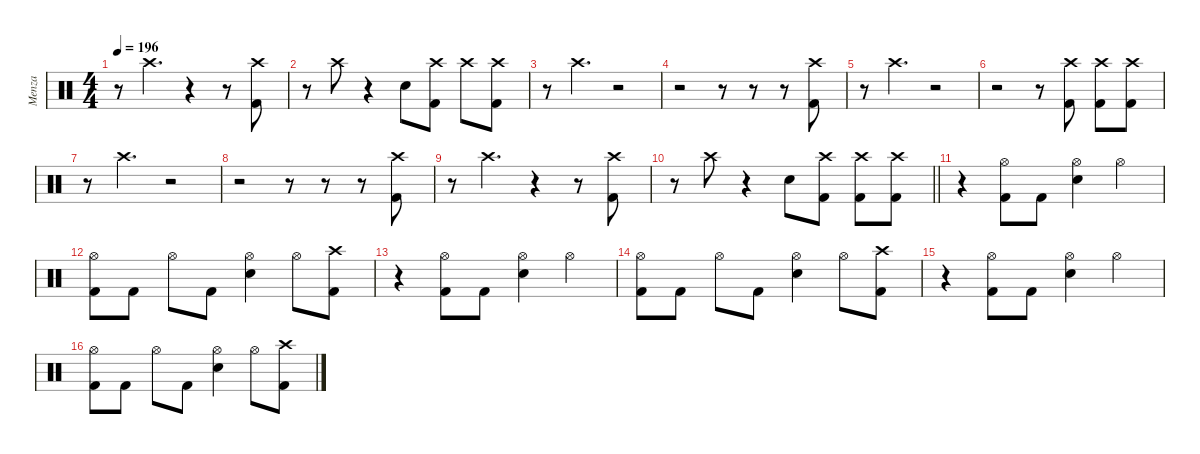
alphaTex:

\defaultSystemsLayout 4
\hideDynamics
\bracketExtendMode nobrackets
\firstSystemTrackNameMode fullname
\otherSystemsTrackNameOrientation horizontal
\track ("Menza" "drm.") {instrument percussion}
\staff {score}
\articulation defaults
\ts (4 4)
\tempo 196
\clef neutral
\ks c
r.8{dy ff beam Down} "Crash high (hit)".4{d dy ppp beam Down} r.4{beam Down} r.8{beam Down} ("Crash high (hit)" "Kick (hit) 2").8{dy fff beam Down} |
r.8{beam Down} "Crash high (hit)".8{dy ppp beam Down} r.4{beam Down} "Snare (hit) 2".8{dy ff beam Down} ("Crash high (hit)" "Kick (hit) 2").8{beam Down} "Crash high (hit)".8{dy ppp beam Down} ("Crash high (hit)" "Kick (hit) 2").8{dy ff beam Down} |
r.8{beam Down} "Crash high (hit)".4{d dy ppp beam Down} r.2{beam Down} |
r.2{beam Down} r.8{beam Down} r.8{beam Down} r.8{beam Down} ("Crash high (hit)" "Kick (hit) 2").8{dy ff beam Down} |
r.8{beam Down} "Crash high (hit)".4{d dy ppp beam Down} r.2{beam Down} |
r.2{beam Down} r.8{beam Down} ("Crash high (hit)" "Kick (hit) 2").8{dy f beam Down} ("Crash high (hit)" "Kick (hit) 2").8{beam Down} ("Crash high (hit)" "Kick (hit) 2").8{dy ff beam Down} |
r.8{beam Down} "Crash high (hit)".4{d dy ppp beam Down} r.2{beam Down} |
r.2{beam Down} r.8{beam Down} r.8{beam Down} r.8{beam Down} ("Crash high (hit)" "Kick (hit) 2").8{dy ff beam Down} |
r.8{beam Down} "Crash high (hit)".4{d dy ppp beam Down} r.4{beam Down} r.8{beam Down} ("Crash high (hit)" "Kick (hit) 2").8{dy fff beam Down} |
\barLineRight lightlight
r.8{beam Down} "Crash high (hit)".8{dy ppp beam Down} r.4{beam Down} "Snare (hit) 2".8{dy ff beam Down} ("Crash high (hit)" "Kick (hit) 2").8{dy f beam Down} ("Crash high (hit)" "Kick (hit) 2").8{beam Down} ("Crash high (hit)" "Kick (hit) 2").8{dy ff beam Down} |
r.4{beam Down} ("Hi-Hat (open)" "Kick (hit) 2").8{dy f beam Down} "Kick (hit) 2".8{dy fff beam Down} ("Hi-Hat (open)" "Snare (hit) 2").4{dy f beam Down} "Hi-Hat (open)".4{beam Down} |
("Hi-Hat (open)" "Kick (hit) 2").8{beam Down} "Kick (hit) 2".8{dy fff beam Down} "Hi-Hat (open)".8{dy f beam Down} "Kick (hit) 2".8{dy fff beam Down} ("Hi-Hat (open)" "Snare (hit) 2").4{dy f beam Down} "Hi-Hat (open)".8{beam Down} ("Crash high (hit)" "Kick (hit) 2").8{dy ff beam Down} |
r.4{beam Down} ("Hi-Hat (open)" "Kick (hit) 2").8{dy f beam Down} "Kick (hit) 2".8{dy fff beam Down} ("Hi-Hat (open)" "Snare (hit) 2").4{dy f beam Down} "Hi-Hat (open)".4{beam Down} |
("Hi-Hat (open)" "Kick (hit) 2").8{beam Down} "Kick (hit) 2".8{dy fff beam Down} "Hi-Hat (open)".8{dy f beam Down} "Kick (hit) 2".8{dy fff beam Down} ("Hi-Hat (open)" "Snare (hit) 2").4{dy f beam Down} "Hi-Hat (open)".8{beam Down} ("Crash high (hit)" "Kick (hit) 2").8{dy ff beam Down} |
r.4{beam Down} ("Hi-Hat (open)" "Kick (hit) 2").8{dy f beam Down} "Kick (hit) 2".8{dy fff beam Down} ("Hi-Hat (open)" "Snare (hit) 2").4{dy f beam Down} "Hi-Hat (open)".4{beam Down} |
("Hi-Hat (open)" "Kick (hit) 2").8{beam Down} "Kick (hit) 2".8{dy fff beam Down} "Hi-Hat (open)".8{dy f beam Down} "Kick (hit) 2".8{dy fff beam Down} ("Hi-Hat (open)" "Snare (hit) 2").4{dy f beam Down} "Hi-Hat (open)".8{beam Down} ("Crash high (hit)" "Kick (hit) 2").8{dy ff beam Down}
